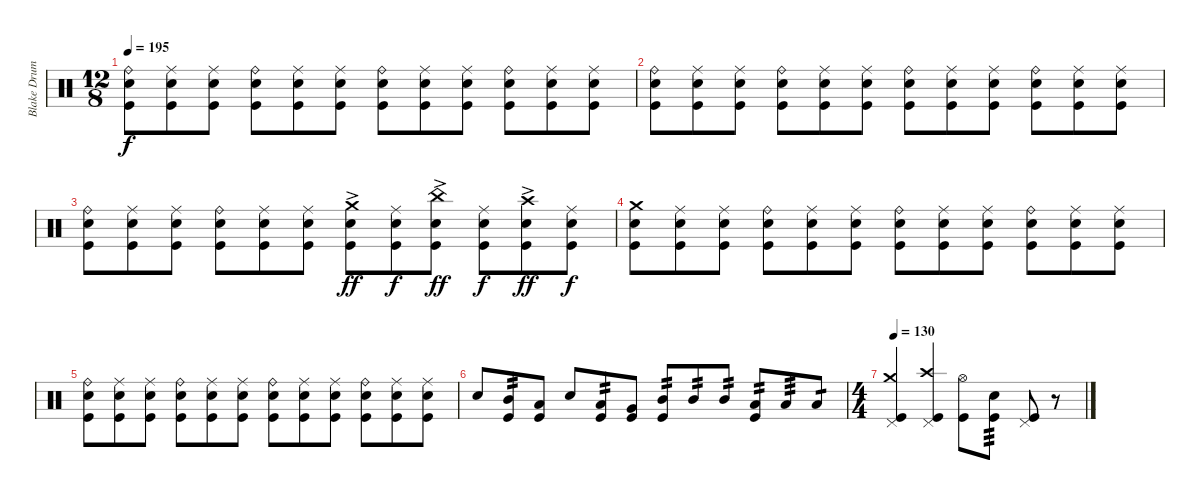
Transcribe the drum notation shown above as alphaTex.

\track ("Blake Drums" "Blake Drum") {instrument percussion}
\staff {score}
\articulation defaults
\ts (12 8)
\tempo 195
\clef neutral
\ks c
("Ride (bell)" "Snare (hit) 2" "Kick (hit)").8{dy f} ("Ride (middle)" "Snare (hit) 2" "Kick (hit)").8 ("Ride (middle)" "Snare (hit) 2" "Kick (hit)").8 ("Ride (bell)" "Snare (hit) 2" "Kick (hit)").8 ("Ride (middle)" "Snare (hit) 2" "Kick (hit)").8 ("Ride (middle)" "Snare (hit) 2" "Kick (hit)").8 ("Ride (bell)" "Snare (hit) 2" "Kick (hit)").8 ("Ride (middle)" "Snare (hit) 2" "Kick (hit)").8 ("Ride (middle)" "Snare (hit) 2" "Kick (hit)").8 ("Ride (bell)" "Snare (hit) 2" "Kick (hit)").8 ("Ride (middle)" "Snare (hit) 2" "Kick (hit)").8 ("Ride (middle)" "Snare (hit) 2" "Kick (hit)").8 |
("Ride (bell)" "Snare (hit) 2" "Kick (hit)").8 ("Ride (middle)" "Snare (hit) 2" "Kick (hit)").8 ("Ride (middle)" "Snare (hit) 2" "Kick (hit)").8 ("Ride (bell)" "Snare (hit) 2" "Kick (hit)").8 ("Ride (middle)" "Snare (hit) 2" "Kick (hit)").8 ("Ride (middle)" "Snare (hit) 2" "Kick (hit)").8 ("Ride (bell)" "Snare (hit) 2" "Kick (hit)").8 ("Ride (middle)" "Snare (hit) 2" "Kick (hit)").8 ("Ride (middle)" "Snare (hit) 2" "Kick (hit)").8 ("Ride (bell)" "Snare (hit) 2" "Kick (hit)").8 ("Ride (middle)" "Snare (hit) 2" "Kick (hit)").8 ("Ride (middle)" "Snare (hit) 2" "Kick (hit)").8 |
("Ride (bell)" "Snare (hit) 2" "Kick (hit)").8 ("Ride (middle)" "Snare (hit) 2" "Kick (hit)").8 ("Ride (middle)" "Snare (hit) 2" "Kick (hit)").8 ("Ride (bell)" "Snare (hit) 2" "Kick (hit)").8 ("Ride (middle)" "Snare (hit) 2" "Kick (hit)").8 ("Ride (middle)" "Snare (hit) 2" "Kick (hit)").8 ("Crash medium (hit)"{ac} "Snare (hit) 2" "Kick (hit)").8{dy ff} ("Ride (middle)" "Snare (hit) 2" "Kick (hit)").8{dy f} ("China (hit)"{ac} "Snare (hit) 2" "Kick (hit)").8{dy ff} ("Ride (middle)" "Snare (hit) 2" "Kick (hit)").8{dy f} ("Crash high (hit)"{ac} "Snare (hit) 2" "Kick (hit)").8{dy ff} ("Ride (middle)" "Snare (hit) 2" "Kick (hit)").8{dy f} |
("Crash medium (hit)" "Snare (hit) 2" "Kick (hit)").8 ("Ride (middle)" "Snare (hit) 2" "Kick (hit)").8 ("Ride (middle)" "Snare (hit) 2" "Kick (hit)").8 ("Ride (bell)" "Snare (hit) 2" "Kick (hit)").8 ("Ride (middle)" "Snare (hit) 2" "Kick (hit)").8 ("Ride (middle)" "Snare (hit) 2" "Kick (hit)").8 ("Ride (bell)" "Snare (hit) 2" "Kick (hit)").8 ("Ride (middle)" "Snare (hit) 2" "Kick (hit)").8 ("Ride (middle)" "Snare (hit) 2" "Kick (hit)").8 ("Ride (bell)" "Snare (hit) 2" "Kick (hit)").8 ("Ride (middle)" "Snare (hit) 2" "Kick (hit)").8 ("Ride (middle)" "Snare (hit) 2" "Kick (hit)").8 |
("Ride (bell)" "Snare (hit) 2" "Kick (hit)").8 ("Ride (middle)" "Snare (hit) 2" "Kick (hit)").8 ("Ride (middle)" "Snare (hit) 2" "Kick (hit)").8 ("Ride (bell)" "Snare (hit) 2" "Kick (hit)").8 ("Ride (middle)" "Snare (hit) 2" "Kick (hit)").8 ("Ride (middle)" "Snare (hit) 2" "Kick (hit)").8 ("Ride (bell)" "Snare (hit) 2" "Kick (hit)").8 ("Ride (middle)" "Snare (hit) 2" "Kick (hit)").8 ("Ride (middle)" "Snare (hit) 2" "Kick (hit)").8 ("Ride (bell)" "Snare (hit) 2" "Kick (hit)").8 ("Ride (middle)" "Snare (hit) 2" "Kick (hit)").8 ("Ride (middle)" "Snare (hit) 2" "Kick (hit)").8 |
"Snare (hit) 2".8 ("Mid Tom (hit)" "Kick (hit)").8{tp 2} ("Low Tom (hit)" "Kick (hit)").8 "Snare (hit) 2".8 ("Low Tom (hit)" "Kick (hit)").8{tp 2} ("Very Low Tom (hit)" "Kick (hit)").8 ("Mid Tom (hit)" "Kick (hit)").8{tp 2} "Mid Tom (hit)".8{tp 2} "Mid Tom (hit)".8{tp 2} ("Low Tom (hit)" "Kick (hit)").8{tp 2} "Low Tom (hit)".8{tp 3} "Low Tom (hit)".8{tp 1} |
\ts (4 4)
\tempo 130
("Crash medium (hit)" "Pedal Hi-Hat (hit)" "Kick (hit)").4 ("Crash high (hit)" "Pedal Hi-Hat (hit)" "Kick (hit)").4 ("Hi-Hat (open)" "Kick (hit)").8 ("Snare (hit) 2" "Kick (hit)").8{tp 3} ("Pedal Hi-Hat (hit)" "Kick (hit)").8 r.8
